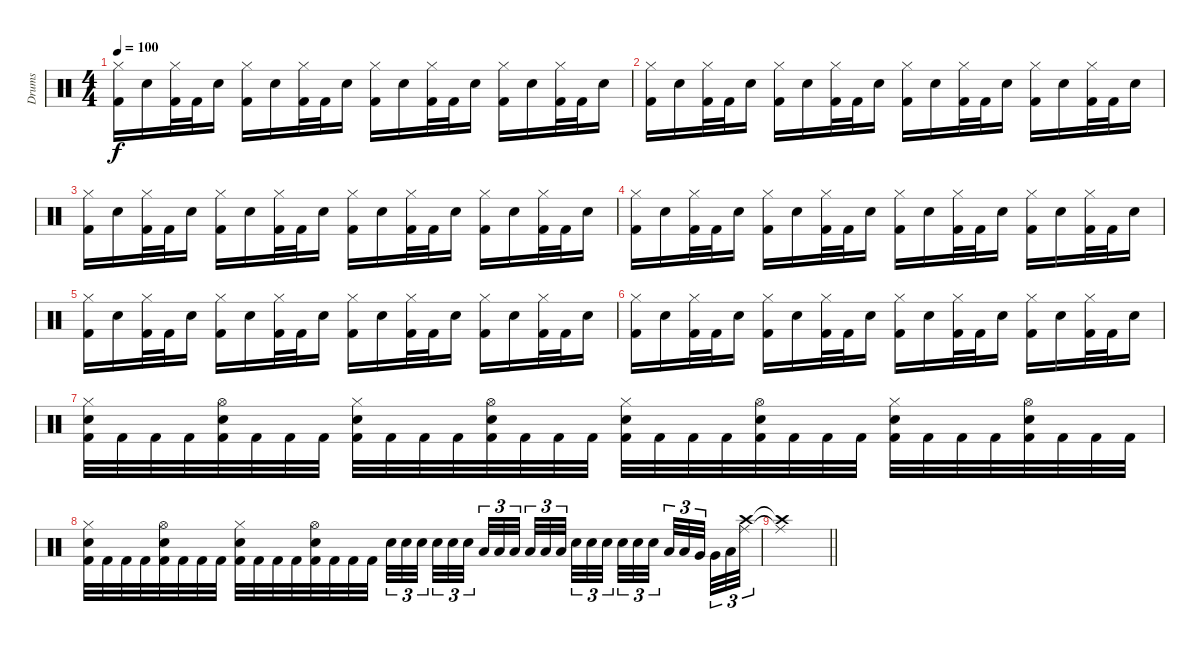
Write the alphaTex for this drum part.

\track ("Drums" "Drums") {instrument percussion}
\staff {score}
\articulation defaults
\ts (4 4)
\tempo 100
\clef neutral
\ks c
("Hi-Hat (closed)" "Kick (hit) 2").16{dy f} "Snare (hit) 2".16 ("Hi-Hat (closed)" "Kick (hit) 2").32 "Kick (hit) 2".32 "Snare (hit) 2".16 ("Hi-Hat (closed)" "Kick (hit) 2").16 "Snare (hit) 2".16 ("Hi-Hat (closed)" "Kick (hit) 2").32 "Kick (hit) 2".32 "Snare (hit) 2".16 ("Hi-Hat (closed)" "Kick (hit) 2").16 "Snare (hit) 2".16 ("Hi-Hat (closed)" "Kick (hit) 2").32 "Kick (hit) 2".32 "Snare (hit) 2".16 ("Hi-Hat (closed)" "Kick (hit) 2").16 "Snare (hit) 2".16 ("Hi-Hat (closed)" "Kick (hit) 2").32 "Kick (hit) 2".32 "Snare (hit) 2".16 |
("Hi-Hat (closed)" "Kick (hit) 2").16 "Snare (hit) 2".16 ("Hi-Hat (closed)" "Kick (hit) 2").32 "Kick (hit) 2".32 "Snare (hit) 2".16 ("Hi-Hat (closed)" "Kick (hit) 2").16 "Snare (hit) 2".16 ("Hi-Hat (closed)" "Kick (hit) 2").32 "Kick (hit) 2".32 "Snare (hit) 2".16 ("Hi-Hat (closed)" "Kick (hit) 2").16 "Snare (hit) 2".16 ("Hi-Hat (closed)" "Kick (hit) 2").32 "Kick (hit) 2".32 "Snare (hit) 2".16 ("Hi-Hat (closed)" "Kick (hit) 2").16 "Snare (hit) 2".16 ("Hi-Hat (closed)" "Kick (hit) 2").32 "Kick (hit) 2".32 "Snare (hit) 2".16 |
("Hi-Hat (closed)" "Kick (hit) 2").16 "Snare (hit) 2".16 ("Hi-Hat (closed)" "Kick (hit) 2").32 "Kick (hit) 2".32 "Snare (hit) 2".16 ("Hi-Hat (closed)" "Kick (hit) 2").16 "Snare (hit) 2".16 ("Hi-Hat (closed)" "Kick (hit) 2").32 "Kick (hit) 2".32 "Snare (hit) 2".16 ("Hi-Hat (closed)" "Kick (hit) 2").16 "Snare (hit) 2".16 ("Hi-Hat (closed)" "Kick (hit) 2").32 "Kick (hit) 2".32 "Snare (hit) 2".16 ("Hi-Hat (closed)" "Kick (hit) 2").16 "Snare (hit) 2".16 ("Hi-Hat (closed)" "Kick (hit) 2").32 "Kick (hit) 2".32 "Snare (hit) 2".16 |
("Hi-Hat (closed)" "Kick (hit) 2").16 "Snare (hit) 2".16 ("Hi-Hat (closed)" "Kick (hit) 2").32 "Kick (hit) 2".32 "Snare (hit) 2".16 ("Hi-Hat (closed)" "Kick (hit) 2").16 "Snare (hit) 2".16 ("Hi-Hat (closed)" "Kick (hit) 2").32 "Kick (hit) 2".32 "Snare (hit) 2".16 ("Hi-Hat (closed)" "Kick (hit) 2").16 "Snare (hit) 2".16 ("Hi-Hat (closed)" "Kick (hit) 2").32 "Kick (hit) 2".32 "Snare (hit) 2".16 ("Hi-Hat (closed)" "Kick (hit) 2").16 "Snare (hit) 2".16 ("Hi-Hat (closed)" "Kick (hit) 2").32 "Kick (hit) 2".32 "Snare (hit) 2".16 |
("Hi-Hat (closed)" "Kick (hit) 2").16 "Snare (hit) 2".16 ("Hi-Hat (closed)" "Kick (hit) 2").32 "Kick (hit) 2".32 "Snare (hit) 2".16 ("Hi-Hat (closed)" "Kick (hit) 2").16 "Snare (hit) 2".16 ("Hi-Hat (closed)" "Kick (hit) 2").32 "Kick (hit) 2".32 "Snare (hit) 2".16 ("Hi-Hat (closed)" "Kick (hit) 2").16 "Snare (hit) 2".16 ("Hi-Hat (closed)" "Kick (hit) 2").32 "Kick (hit) 2".32 "Snare (hit) 2".16 ("Hi-Hat (closed)" "Kick (hit) 2").16 "Snare (hit) 2".16 ("Hi-Hat (closed)" "Kick (hit) 2").32 "Kick (hit) 2".32 "Snare (hit) 2".16 |
("Hi-Hat (closed)" "Kick (hit) 2").16 "Snare (hit) 2".16 ("Hi-Hat (closed)" "Kick (hit) 2").32 "Kick (hit) 2".32 "Snare (hit) 2".16 ("Hi-Hat (closed)" "Kick (hit) 2").16 "Snare (hit) 2".16 ("Hi-Hat (closed)" "Kick (hit) 2").32 "Kick (hit) 2".32 "Snare (hit) 2".16 ("Hi-Hat (closed)" "Kick (hit) 2").16 "Snare (hit) 2".16 ("Hi-Hat (closed)" "Kick (hit) 2").32 "Kick (hit) 2".32 "Snare (hit) 2".16 ("Hi-Hat (closed)" "Kick (hit) 2").16 "Snare (hit) 2".16 ("Hi-Hat (closed)" "Kick (hit) 2").32 "Kick (hit) 2".32 "Snare (hit) 2".16 |
("Hi-Hat (closed)" "Snare (hit) 2" "Kick (hit) 2").32 "Kick (hit) 2".32 "Kick (hit) 2".32 "Kick (hit) 2".32 ("Hi-Hat (open)" "Snare (hit) 2" "Kick (hit) 2").32 "Kick (hit) 2".32 "Kick (hit) 2".32 "Kick (hit) 2".32 ("Hi-Hat (closed)" "Snare (hit) 2" "Kick (hit) 2").32 "Kick (hit) 2".32 "Kick (hit) 2".32 "Kick (hit) 2".32 ("Hi-Hat (open)" "Snare (hit) 2" "Kick (hit) 2").32 "Kick (hit) 2".32 "Kick (hit) 2".32 "Kick (hit) 2".32 ("Hi-Hat (closed)" "Snare (hit) 2" "Kick (hit) 2").32 "Kick (hit) 2".32 "Kick (hit) 2".32 "Kick (hit) 2".32 ("Hi-Hat (open)" "Snare (hit) 2" "Kick (hit) 2").32 "Kick (hit) 2".32 "Kick (hit) 2".32 "Kick (hit) 2".32 ("Hi-Hat (closed)" "Snare (hit) 2" "Kick (hit) 2").32 "Kick (hit) 2".32 "Kick (hit) 2".32 "Kick (hit) 2".32 ("Hi-Hat (open)" "Snare (hit) 2" "Kick (hit) 2").32 "Kick (hit) 2".32 "Kick (hit) 2".32 "Kick (hit) 2".32 |
("Hi-Hat (closed)" "Snare (hit) 2" "Kick (hit) 2").32 "Kick (hit) 2".32 "Kick (hit) 2".32 "Kick (hit) 2".32 ("Hi-Hat (open)" "Snare (hit) 2" "Kick (hit) 2").32 "Kick (hit) 2".32 "Kick (hit) 2".32 "Kick (hit) 2".32 ("Hi-Hat (closed)" "Snare (hit) 2" "Kick (hit) 2").32 "Kick (hit) 2".32 "Kick (hit) 2".32 "Kick (hit) 2".32 ("Hi-Hat (open)" "Snare (hit) 2" "Kick (hit) 2").32 "Kick (hit) 2".32 "Kick (hit) 2".32 "Kick (hit) 2".32 "Snare (hit) 2".32{tu (3 2)} "Snare (hit) 2".32{tu (3 2)} "Snare (hit) 2".32{tu (3 2) beam splitsecondary} "Snare (hit) 2".32{tu (3 2)} "Snare (hit) 2".32{tu (3 2)} "Snare (hit) 2".32{tu (3 2) beam splitsecondary} "Low Tom (hit)".32{tu (3 2)} "Low Tom (hit)".32{tu (3 2)} "Low Tom (hit)".32{tu (3 2) beam splitsecondary} "Low Tom (hit)".32{tu (3 2)} "Low Tom (hit)".32{tu (3 2)} "Low Tom (hit)".32{tu (3 2)} "Snare (hit) 2".32{tu (3 2)} "Snare (hit) 2".32{tu (3 2)} "Snare (hit) 2".32{tu (3 2) beam splitsecondary} "Snare (hit) 2".32{tu (3 2)} "Snare (hit) 2".32{tu (3 2)} "Snare (hit) 2".32{tu (3 2) beam splitsecondary} "Low Tom (hit)".32{tu (3 2)} "Low Tom (hit)".32{tu (3 2)} "Very Low Tom (hit)".32{tu (3 2) beam splitsecondary} "Very Low Tom (hit)".32{tu (3 2)} "Low Floor Tom (hit)".32{tu (3 2)} ("Ride (middle)" "Crash high (hit)").32{tu (3 2)} |
\barLineRight lightlight
("Ride (middle)"{t} "Crash high (hit)"{t}).1
